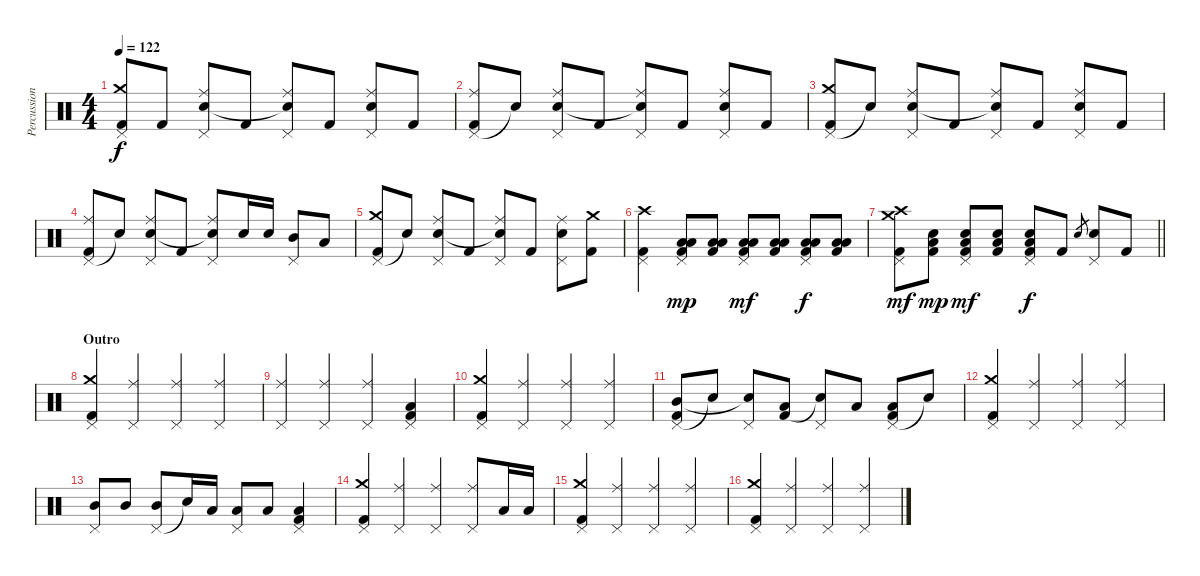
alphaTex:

\track ("Percussioni" "Percussion") {instrument percussion}
\staff {score}
\articulation defaults
\ts (4 4)
\tempo 122
\clef neutral
\ks c
("Pedal Hi-Hat (hit)" "Crash medium (hit)" "Kick (hit) 2").8{dy f} "Kick (hit) 2".8 ("Pedal Hi-Hat (hit)" "Ride (middle)" "Snare (hit) 2").8 "Kick (hit) 2".8 ("Pedal Hi-Hat (hit)" "Ride (middle)" "Snare (hit)"{t}).8 "Kick (hit) 2".8 ("Pedal Hi-Hat (hit)" "Ride (middle)" "Snare (hit) 2").8 "Kick (hit) 2".8 |
("Pedal Hi-Hat (hit)" "Ride (middle)" "Kick (hit) 2").8 "Snare (hit)"{t}.8 ("Pedal Hi-Hat (hit)" "Ride (middle)" "Snare (hit) 2").8 "Kick (hit) 2".8 ("Pedal Hi-Hat (hit)" "Ride (middle)" "Snare (hit)"{t}).8 "Kick (hit) 2".8 ("Pedal Hi-Hat (hit)" "Ride (middle)" "Snare (hit) 2").8 "Kick (hit) 2".8 |
("Pedal Hi-Hat (hit)" "Crash medium (hit)" "Kick (hit) 2").8 "Snare (hit)"{t}.8 ("Pedal Hi-Hat (hit)" "Ride (middle)" "Snare (hit) 2").8 "Kick (hit) 2".8 ("Pedal Hi-Hat (hit)" "Ride (middle)" "Snare (hit)"{t}).8 "Kick (hit) 2".8 ("Pedal Hi-Hat (hit)" "Ride (middle)" "Snare (hit) 2").8 "Kick (hit) 2".8 |
("Pedal Hi-Hat (hit)" "Ride (middle)" "Kick (hit) 2").8 "Snare (hit)"{t}.8 ("Pedal Hi-Hat (hit)" "Ride (middle)" "Snare (hit) 2").8 "Kick (hit) 2".8 ("Pedal Hi-Hat (hit)" "Ride (middle)" "Snare (hit)"{t}).8 "Snare (hit) 2".16 "Snare (hit) 2".16 ("Pedal Hi-Hat (hit)" "Mid Tom (hit)").8 "Low Tom (hit)".8 |
("Pedal Hi-Hat (hit)" "Crash medium (hit)" "Kick (hit) 2").8 "Snare (hit)"{t}.8 ("Pedal Hi-Hat (hit)" "Ride (middle)" "Snare (hit) 2").8 "Kick (hit) 2".8 ("Pedal Hi-Hat (hit)" "Ride (middle)" "Snare (hit)"{t}).8 "Kick (hit) 2".8 ("Pedal Hi-Hat (hit)" "Ride (middle)" "Snare (hit) 2").8 ("Crash medium (hit)" "Kick (hit) 2").8 |
("Pedal Hi-Hat (hit)" "Crash high (hit)" "Kick (hit) 2").4 ("Pedal Hi-Hat (hit)" "Low Tom (hit)" "Low Floor Tom (hit)" "Kick (hit) 2").8{dy mp} ("Low Tom (hit)" "Low Floor Tom (hit)" "Kick (hit) 2").8 ("Pedal Hi-Hat (hit)" "Low Tom (hit)" "Low Floor Tom (hit)" "Kick (hit) 2").8{dy mf} ("Low Tom (hit)" "Low Floor Tom (hit)" "Kick (hit) 2").8 ("Pedal Hi-Hat (hit)" "Low Tom (hit)" "Low Floor Tom (hit)" "Kick (hit) 2").8{dy f} ("Low Tom (hit)" "Low Floor Tom (hit)" "Kick (hit) 2").8 |
\barLineRight lightlight
("Pedal Hi-Hat (hit)" "Crash medium (hit)" "Crash high (hit)" "Kick (hit) 2").8{dy mf} ("Snare (hit) 2" "Low Floor Tom (hit)" "Kick (hit) 2").8{dy mp} ("Pedal Hi-Hat (hit)" "Snare (hit) 2" "Low Floor Tom (hit)" "Kick (hit) 2").8{dy mf} ("Snare (hit) 2" "Low Floor Tom (hit)" "Kick (hit) 2").8 ("Pedal Hi-Hat (hit)" "Snare (hit) 2" "Low Floor Tom (hit)" "Kick (hit) 2").8{dy f} "Kick (hit) 2".8 "Snare (hit) 2".8{gr} ("Pedal Hi-Hat (hit)" "Snare (hit) 2").8 "Kick (hit) 2".8 |
\section ("" "Outro")
("Pedal Hi-Hat (hit)" "Crash medium (hit)" "Kick (hit) 2").4 ("Pedal Hi-Hat (hit)" "Ride (middle)").4 ("Pedal Hi-Hat (hit)" "Ride (middle)").4 ("Pedal Hi-Hat (hit)" "Ride (middle)").4 |
("Pedal Hi-Hat (hit)" "Ride (middle)").4 ("Pedal Hi-Hat (hit)" "Ride (middle)").4 ("Pedal Hi-Hat (hit)" "Ride (middle)").4 ("Pedal Hi-Hat (hit)" "Low Floor Tom (hit)" "Kick (hit) 2").4 |
("Pedal Hi-Hat (hit)" "Crash medium (hit)" "Kick (hit) 2").4 ("Pedal Hi-Hat (hit)" "Ride (middle)").4 ("Pedal Hi-Hat (hit)" "Ride (middle)").4 ("Pedal Hi-Hat (hit)" "Ride (middle)").4 |
("Pedal Hi-Hat (hit)" "Mid Tom (hit)" "Kick (hit) 2").8 "Snare (hit)"{t}.8 ("Pedal Hi-Hat (hit)" "Snare (hit)"{t}).8 ("Low Tom (hit)" "Kick (hit) 2").8 ("Pedal Hi-Hat (hit)" "Snare (hit)"{t}).8 "Low Floor Tom (hit)".8 ("Pedal Hi-Hat (hit)" "Low Floor Tom (hit)" "Kick (hit) 2").8 "Snare (hit)"{t}.8 |
("Pedal Hi-Hat (hit)" "Crash medium (hit)" "Kick (hit) 2").4 ("Pedal Hi-Hat (hit)" "Ride (middle)").4 ("Pedal Hi-Hat (hit)" "Ride (middle)").4 ("Pedal Hi-Hat (hit)" "Ride (middle)").4 |
("Pedal Hi-Hat (hit)" "Mid Tom (hit)").8 "Mid Tom (hit)".8 ("Pedal Hi-Hat (hit)" "Mid Tom (hit)").8 "Snare (hit)"{t}.16 "Low Tom (hit)".16 ("Pedal Hi-Hat (hit)" "Low Tom (hit)").8 "Low Floor Tom (hit)".8 ("Pedal Hi-Hat (hit)" "Low Floor Tom (hit)" "Kick (hit) 2").4 |
("Pedal Hi-Hat (hit)" "Crash medium (hit)" "Kick (hit) 2").4 ("Pedal Hi-Hat (hit)" "Ride (middle)").4 ("Pedal Hi-Hat (hit)" "Ride (middle)").4 ("Pedal Hi-Hat (hit)" "Ride (middle)").8 "Low Tom (hit)".16 "Low Tom (hit)".16 |
("Pedal Hi-Hat (hit)" "Crash medium (hit)" "Kick (hit) 2").4 ("Pedal Hi-Hat (hit)" "Ride (middle)").4 ("Pedal Hi-Hat (hit)" "Ride (middle)").4 ("Pedal Hi-Hat (hit)" "Ride (middle)").4 |
("Pedal Hi-Hat (hit)" "Crash medium (hit)" "Kick (hit) 2").4 ("Pedal Hi-Hat (hit)" "Ride (middle)").4 ("Pedal Hi-Hat (hit)" "Ride (middle)").4 ("Pedal Hi-Hat (hit)" "Ride (middle)").4
